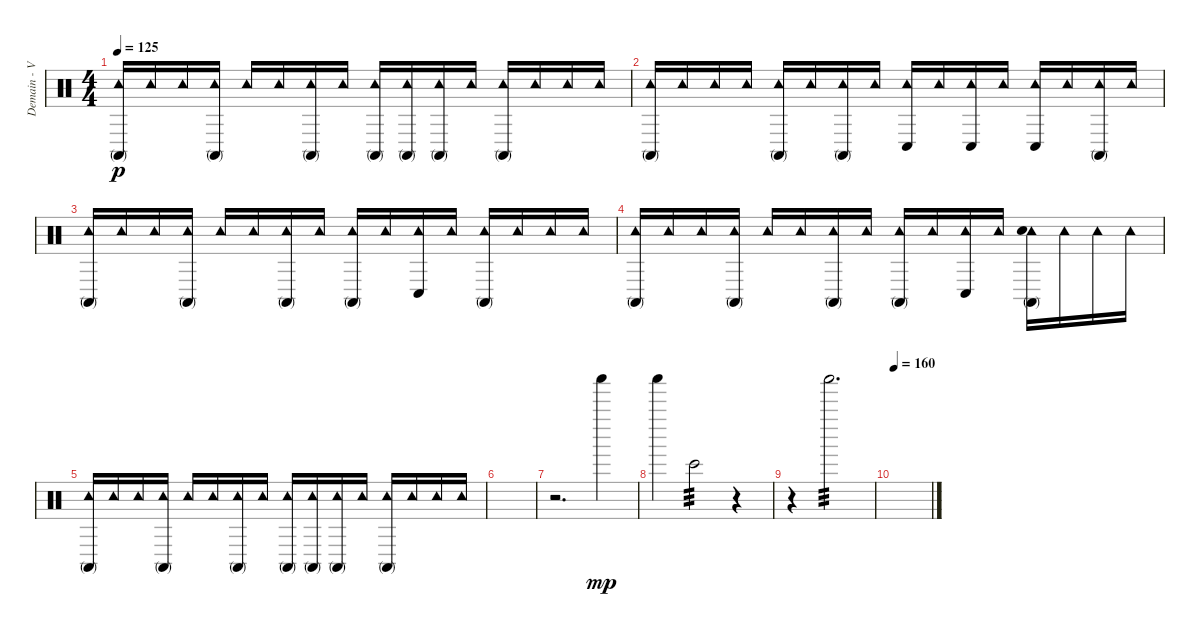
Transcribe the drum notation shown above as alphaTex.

\track ("Demain - Various Perc." "Demain - V") {instrument percussion}
\staff {score}
\articulation defaults
\ts (4 4)
\tempo 125
\clef neutral
\ks c
("Tambourine (hit)" "Conga high (mute)").16{dy p} "Tambourine (hit)".16 "Tambourine (hit)".16 ("Tambourine (hit)" "Conga high (mute)").16 "Tambourine (hit)".16 "Tambourine (hit)".16 ("Tambourine (hit)" "Conga high (mute)").16 "Tambourine (hit)".16 ("Tambourine (hit)" "Conga high (mute)").16 ("Tambourine (hit)" "Conga high (mute)").16 ("Tambourine (hit)" "Conga high (mute)").16 "Tambourine (hit)".16 ("Tambourine (hit)" "Conga high (mute)").16 "Tambourine (hit)".16 "Tambourine (hit)".16 "Tambourine (hit)".16 |
("Tambourine (hit)" "Conga high (mute)").16 "Tambourine (hit)".16 "Tambourine (hit)".16 "Tambourine (hit)".16 ("Tambourine (hit)" "Conga high (mute)").16 "Tambourine (hit)".16 ("Tambourine (hit)" "Conga high (mute)").16 "Tambourine (hit)".16 ("Tambourine (hit)" "Conga low (hit)").16 "Tambourine (hit)".16 ("Tambourine (hit)" "Conga low (hit)").16 "Tambourine (hit)".16 ("Tambourine (hit)" "Conga low (hit)").16 "Tambourine (hit)".16 ("Tambourine (hit)" "Conga high (mute)").16 "Tambourine (hit)".16 |
("Tambourine (hit)" "Conga high (mute)").16 "Tambourine (hit)".16 "Tambourine (hit)".16 ("Tambourine (hit)" "Conga high (mute)").16 "Tambourine (hit)".16 "Tambourine (hit)".16 ("Tambourine (hit)" "Conga high (mute)").16 "Tambourine (hit)".16 ("Tambourine (hit)" "Conga high (mute)").16 "Tambourine (hit)".16 ("Tambourine (hit)" "Conga low (hit)").16 "Tambourine (hit)".16 ("Tambourine (hit)" "Conga high (mute)").16 "Tambourine (hit)".16 "Tambourine (hit)".16 "Tambourine (hit)".16 |
("Tambourine (hit)" "Conga high (mute)").16 "Tambourine (hit)".16 "Tambourine (hit)".16 ("Tambourine (hit)" "Conga high (mute)").16 "Tambourine (hit)".16 "Tambourine (hit)".16 ("Tambourine (hit)" "Conga high (mute)").16 "Tambourine (hit)".16 ("Tambourine (hit)" "Conga high (mute)").16 "Tambourine (hit)".16 ("Tambourine (hit)" "Conga low (hit)").16 "Tambourine (hit)".16 ("Tambourine (hit)" "Conga high (mute)" "Hand Clap (hit)").16 "Tambourine (hit)".16 "Tambourine (hit)".16 "Tambourine (hit)".16 |
("Tambourine (hit)" "Conga high (mute)").16 "Tambourine (hit)".16 "Tambourine (hit)".16 ("Tambourine (hit)" "Conga high (mute)").16 "Tambourine (hit)".16 "Tambourine (hit)".16 ("Tambourine (hit)" "Conga high (mute)").16 "Tambourine (hit)".16 ("Tambourine (hit)" "Conga high (mute)").16 ("Tambourine (hit)" "Conga high (mute)").16 ("Tambourine (hit)" "Conga high (mute)").16 "Tambourine (hit)".16 ("Tambourine (hit)" "Conga high (mute)").16 "Tambourine (hit)".16 "Tambourine (hit)".16 "Tambourine (hit)".16 |
|
r.2{d} "Shaker (hit)".4{dy mp} |
"Shaker (hit)".4 "Bongo High (hit)".2{tp 3} r.4 |
r.4 "Shaker (hit)".2{d tp 3} |
\tempo 160
